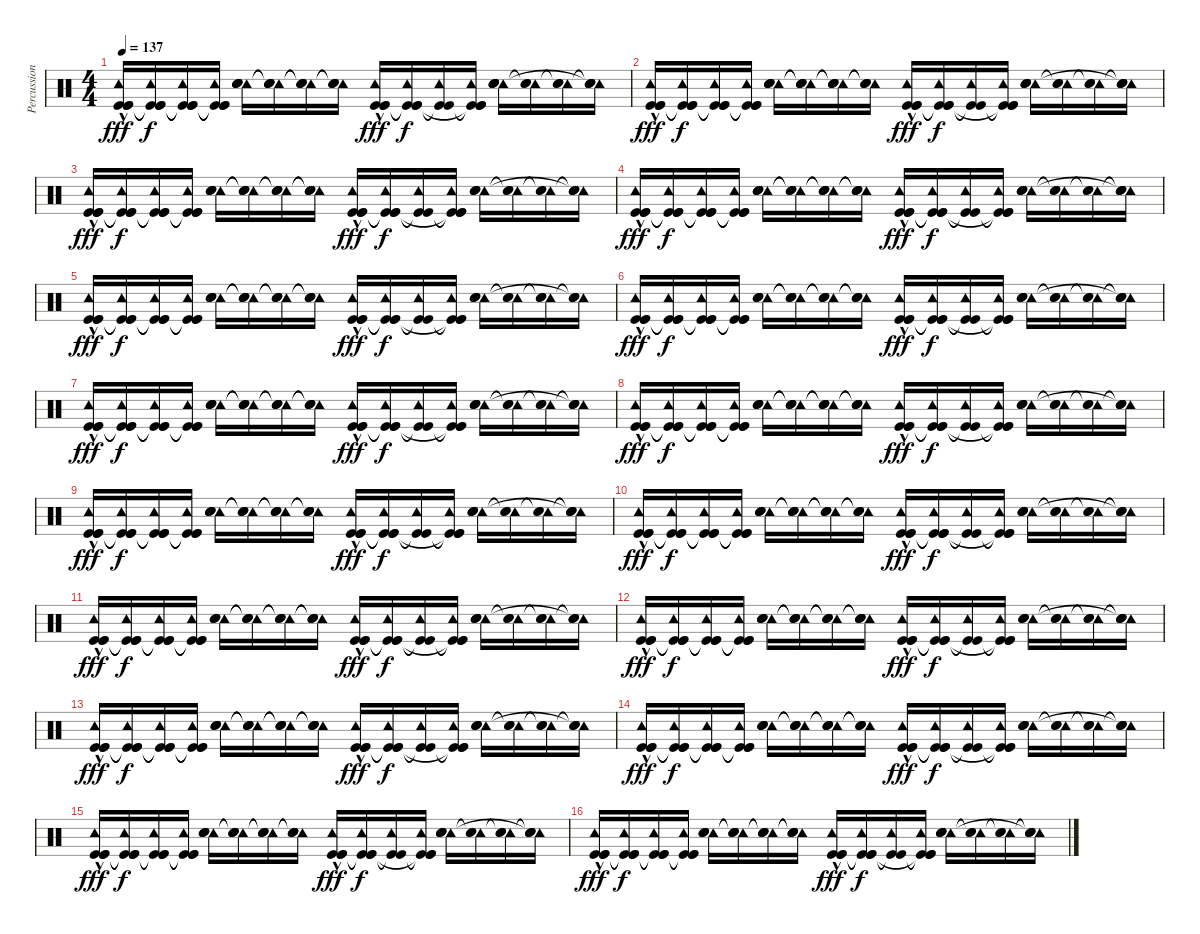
\track ("Percussion" "Percussion") {instrument percussion}
\staff {score}
\articulation defaults
\ts (4 4)
\tempo 137
\clef neutral
\ks c
("Tambourine (hit)"{hac} "Kick (hit)" "Kick (hit)" "Kick (hit)").16{dy fff} ("Tambourine (hit)" "Kick (hit)"{t} "Kick (hit)"{t} "Kick (hit)"{t}).16{dy f} ("Tambourine (hit)" "Kick (hit)"{t} "Kick (hit)"{t} "Kick (hit)"{t}).16 ("Tambourine (hit)" "Kick (hit)"{t} "Kick (hit)"{t} "Kick (hit)"{t}).16 ("Tambourine (hit)" "Snare (hit) 2" "Snare (hit) 2" "Snare (hit) 2").16 ("Tambourine (hit)" "Snare (hit) 2"{t} "Snare (hit) 2"{t} "Snare (hit) 2"{t}).16 ("Tambourine (hit)" "Snare (hit) 2"{t} "Snare (hit) 2"{t} "Snare (hit) 2"{t}).16 ("Tambourine (hit)" "Snare (hit) 2"{t} "Snare (hit) 2"{t} "Snare (hit) 2"{t}).16 ("Tambourine (hit)"{hac} "Kick (hit)" "Kick (hit)" "Kick (hit)").16{dy fff} ("Tambourine (hit)" "Kick (hit)"{t} "Kick (hit)"{t} "Kick (hit)"{t}).16{dy f} ("Tambourine (hit)" "Kick (hit)"{t} "Kick (hit)"{t}).16 ("Tambourine (hit)" "Kick (hit)"{t} "Kick (hit)"{t} "Kick (hit)"{t}).16 ("Tambourine (hit)" "Snare (hit) 2" "Snare (hit) 2" "Snare (hit) 2").16 ("Tambourine (hit)" "Snare (hit) 2"{t} "Snare (hit) 2"{t}).16 ("Tambourine (hit)" "Snare (hit) 2"{t} "Snare (hit) 2"{t}).16 ("Tambourine (hit)" "Snare (hit) 2"{t} "Snare (hit) 2"{t} "Snare (hit) 2"{t}).16 |
("Tambourine (hit)"{hac} "Kick (hit)" "Kick (hit)" "Kick (hit)").16{dy fff} ("Tambourine (hit)" "Kick (hit)"{t} "Kick (hit)"{t} "Kick (hit)"{t}).16{dy f} ("Tambourine (hit)" "Kick (hit)"{t} "Kick (hit)"{t} "Kick (hit)"{t}).16 ("Tambourine (hit)" "Kick (hit)"{t} "Kick (hit)"{t} "Kick (hit)"{t}).16 ("Tambourine (hit)" "Snare (hit) 2" "Snare (hit) 2" "Snare (hit) 2").16 ("Tambourine (hit)" "Snare (hit) 2"{t} "Snare (hit) 2"{t} "Snare (hit) 2"{t}).16 ("Tambourine (hit)" "Snare (hit) 2"{t} "Snare (hit) 2"{t} "Snare (hit) 2"{t}).16 ("Tambourine (hit)" "Snare (hit) 2"{t} "Snare (hit) 2"{t} "Snare (hit) 2"{t}).16 ("Tambourine (hit)"{hac} "Kick (hit)" "Kick (hit)" "Kick (hit)").16{dy fff} ("Tambourine (hit)" "Kick (hit)"{t} "Kick (hit)"{t} "Kick (hit)"{t}).16{dy f} ("Tambourine (hit)" "Kick (hit)"{t} "Kick (hit)"{t}).16 ("Tambourine (hit)" "Kick (hit)"{t} "Kick (hit)"{t} "Kick (hit)"{t}).16 ("Tambourine (hit)" "Snare (hit) 2" "Snare (hit) 2" "Snare (hit) 2").16 ("Tambourine (hit)" "Snare (hit) 2"{t} "Snare (hit) 2"{t}).16 ("Tambourine (hit)" "Snare (hit) 2"{t} "Snare (hit) 2"{t}).16 ("Tambourine (hit)" "Snare (hit) 2"{t} "Snare (hit) 2"{t} "Snare (hit) 2"{t}).16 |
("Tambourine (hit)"{hac} "Kick (hit)" "Kick (hit)" "Kick (hit)").16{dy fff} ("Tambourine (hit)" "Kick (hit)"{t} "Kick (hit)"{t} "Kick (hit)"{t}).16{dy f} ("Tambourine (hit)" "Kick (hit)"{t} "Kick (hit)"{t} "Kick (hit)"{t}).16 ("Tambourine (hit)" "Kick (hit)"{t} "Kick (hit)"{t} "Kick (hit)"{t}).16 ("Tambourine (hit)" "Snare (hit) 2" "Snare (hit) 2" "Snare (hit) 2").16 ("Tambourine (hit)" "Snare (hit) 2"{t} "Snare (hit) 2"{t} "Snare (hit) 2"{t}).16 ("Tambourine (hit)" "Snare (hit) 2"{t} "Snare (hit) 2"{t} "Snare (hit) 2"{t}).16 ("Tambourine (hit)" "Snare (hit) 2"{t} "Snare (hit) 2"{t} "Snare (hit) 2"{t}).16 ("Tambourine (hit)"{hac} "Kick (hit)" "Kick (hit)" "Kick (hit)").16{dy fff} ("Tambourine (hit)" "Kick (hit)"{t} "Kick (hit)"{t} "Kick (hit)"{t}).16{dy f} ("Tambourine (hit)" "Kick (hit)"{t} "Kick (hit)"{t}).16 ("Tambourine (hit)" "Kick (hit)"{t} "Kick (hit)"{t} "Kick (hit)"{t}).16 ("Tambourine (hit)" "Snare (hit) 2" "Snare (hit) 2" "Snare (hit) 2").16 ("Tambourine (hit)" "Snare (hit) 2"{t} "Snare (hit) 2"{t}).16 ("Tambourine (hit)" "Snare (hit) 2"{t} "Snare (hit) 2"{t}).16 ("Tambourine (hit)" "Snare (hit) 2"{t} "Snare (hit) 2"{t} "Snare (hit) 2"{t}).16 |
("Tambourine (hit)"{hac} "Kick (hit)" "Kick (hit)" "Kick (hit)").16{dy fff} ("Tambourine (hit)" "Kick (hit)"{t} "Kick (hit)"{t} "Kick (hit)"{t}).16{dy f} ("Tambourine (hit)" "Kick (hit)"{t} "Kick (hit)"{t} "Kick (hit)"{t}).16 ("Tambourine (hit)" "Kick (hit)"{t} "Kick (hit)"{t} "Kick (hit)"{t}).16 ("Tambourine (hit)" "Snare (hit) 2" "Snare (hit) 2" "Snare (hit) 2").16 ("Tambourine (hit)" "Snare (hit) 2"{t} "Snare (hit) 2"{t} "Snare (hit) 2"{t}).16 ("Tambourine (hit)" "Snare (hit) 2"{t} "Snare (hit) 2"{t} "Snare (hit) 2"{t}).16 ("Tambourine (hit)" "Snare (hit) 2"{t} "Snare (hit) 2"{t} "Snare (hit) 2"{t}).16 ("Tambourine (hit)"{hac} "Kick (hit)" "Kick (hit)" "Kick (hit)").16{dy fff} ("Tambourine (hit)" "Kick (hit)"{t} "Kick (hit)"{t} "Kick (hit)"{t}).16{dy f} ("Tambourine (hit)" "Kick (hit)"{t} "Kick (hit)"{t}).16 ("Tambourine (hit)" "Kick (hit)"{t} "Kick (hit)"{t} "Kick (hit)"{t}).16 ("Tambourine (hit)" "Snare (hit) 2" "Snare (hit) 2" "Snare (hit) 2").16 ("Tambourine (hit)" "Snare (hit) 2"{t} "Snare (hit) 2"{t}).16 ("Tambourine (hit)" "Snare (hit) 2"{t} "Snare (hit) 2"{t}).16 ("Tambourine (hit)" "Snare (hit) 2"{t} "Snare (hit) 2"{t} "Snare (hit) 2"{t}).16 |
("Tambourine (hit)"{hac} "Kick (hit)" "Kick (hit)" "Kick (hit)").16{dy fff} ("Tambourine (hit)" "Kick (hit)"{t} "Kick (hit)"{t} "Kick (hit)"{t}).16{dy f} ("Tambourine (hit)" "Kick (hit)"{t} "Kick (hit)"{t} "Kick (hit)"{t}).16 ("Tambourine (hit)" "Kick (hit)"{t} "Kick (hit)"{t} "Kick (hit)"{t}).16 ("Tambourine (hit)" "Snare (hit) 2" "Snare (hit) 2" "Snare (hit) 2").16 ("Tambourine (hit)" "Snare (hit) 2"{t} "Snare (hit) 2"{t} "Snare (hit) 2"{t}).16 ("Tambourine (hit)" "Snare (hit) 2"{t} "Snare (hit) 2"{t} "Snare (hit) 2"{t}).16 ("Tambourine (hit)" "Snare (hit) 2"{t} "Snare (hit) 2"{t} "Snare (hit) 2"{t}).16 ("Tambourine (hit)"{hac} "Kick (hit)" "Kick (hit)" "Kick (hit)").16{dy fff} ("Tambourine (hit)" "Kick (hit)"{t} "Kick (hit)"{t} "Kick (hit)"{t}).16{dy f} ("Tambourine (hit)" "Kick (hit)"{t} "Kick (hit)"{t}).16 ("Tambourine (hit)" "Kick (hit)"{t} "Kick (hit)"{t} "Kick (hit)"{t}).16 ("Tambourine (hit)" "Snare (hit) 2" "Snare (hit) 2" "Snare (hit) 2").16 ("Tambourine (hit)" "Snare (hit) 2"{t} "Snare (hit) 2"{t}).16 ("Tambourine (hit)" "Snare (hit) 2"{t} "Snare (hit) 2"{t}).16 ("Tambourine (hit)" "Snare (hit) 2"{t} "Snare (hit) 2"{t} "Snare (hit) 2"{t}).16 |
("Tambourine (hit)"{hac} "Kick (hit)" "Kick (hit)" "Kick (hit)").16{dy fff} ("Tambourine (hit)" "Kick (hit)"{t} "Kick (hit)"{t} "Kick (hit)"{t}).16{dy f} ("Tambourine (hit)" "Kick (hit)"{t} "Kick (hit)"{t} "Kick (hit)"{t}).16 ("Tambourine (hit)" "Kick (hit)"{t} "Kick (hit)"{t} "Kick (hit)"{t}).16 ("Tambourine (hit)" "Snare (hit) 2" "Snare (hit) 2" "Snare (hit) 2").16 ("Tambourine (hit)" "Snare (hit) 2"{t} "Snare (hit) 2"{t} "Snare (hit) 2"{t}).16 ("Tambourine (hit)" "Snare (hit) 2"{t} "Snare (hit) 2"{t} "Snare (hit) 2"{t}).16 ("Tambourine (hit)" "Snare (hit) 2"{t} "Snare (hit) 2"{t} "Snare (hit) 2"{t}).16 ("Tambourine (hit)"{hac} "Kick (hit)" "Kick (hit)" "Kick (hit)").16{dy fff} ("Tambourine (hit)" "Kick (hit)"{t} "Kick (hit)"{t} "Kick (hit)"{t}).16{dy f} ("Tambourine (hit)" "Kick (hit)"{t} "Kick (hit)"{t}).16 ("Tambourine (hit)" "Kick (hit)"{t} "Kick (hit)"{t} "Kick (hit)"{t}).16 ("Tambourine (hit)" "Snare (hit) 2" "Snare (hit) 2" "Snare (hit) 2").16 ("Tambourine (hit)" "Snare (hit) 2"{t} "Snare (hit) 2"{t}).16 ("Tambourine (hit)" "Snare (hit) 2"{t} "Snare (hit) 2"{t}).16 ("Tambourine (hit)" "Snare (hit) 2"{t} "Snare (hit) 2"{t} "Snare (hit) 2"{t}).16 |
("Tambourine (hit)"{hac} "Kick (hit)" "Kick (hit)" "Kick (hit)").16{dy fff} ("Tambourine (hit)" "Kick (hit)"{t} "Kick (hit)"{t} "Kick (hit)"{t}).16{dy f} ("Tambourine (hit)" "Kick (hit)"{t} "Kick (hit)"{t} "Kick (hit)"{t}).16 ("Tambourine (hit)" "Kick (hit)"{t} "Kick (hit)"{t} "Kick (hit)"{t}).16 ("Tambourine (hit)" "Snare (hit) 2" "Snare (hit) 2" "Snare (hit) 2").16 ("Tambourine (hit)" "Snare (hit) 2"{t} "Snare (hit) 2"{t} "Snare (hit) 2"{t}).16 ("Tambourine (hit)" "Snare (hit) 2"{t} "Snare (hit) 2"{t} "Snare (hit) 2"{t}).16 ("Tambourine (hit)" "Snare (hit) 2"{t} "Snare (hit) 2"{t} "Snare (hit) 2"{t}).16 ("Tambourine (hit)"{hac} "Kick (hit)" "Kick (hit)" "Kick (hit)").16{dy fff} ("Tambourine (hit)" "Kick (hit)"{t} "Kick (hit)"{t} "Kick (hit)"{t}).16{dy f} ("Tambourine (hit)" "Kick (hit)"{t} "Kick (hit)"{t}).16 ("Tambourine (hit)" "Kick (hit)"{t} "Kick (hit)"{t} "Kick (hit)"{t}).16 ("Tambourine (hit)" "Snare (hit) 2" "Snare (hit) 2" "Snare (hit) 2").16 ("Tambourine (hit)" "Snare (hit) 2"{t} "Snare (hit) 2"{t}).16 ("Tambourine (hit)" "Snare (hit) 2"{t} "Snare (hit) 2"{t}).16 ("Tambourine (hit)" "Snare (hit) 2"{t} "Snare (hit) 2"{t} "Snare (hit) 2"{t}).16 |
("Tambourine (hit)"{hac} "Kick (hit)" "Kick (hit)" "Kick (hit)").16{dy fff} ("Tambourine (hit)" "Kick (hit)"{t} "Kick (hit)"{t} "Kick (hit)"{t}).16{dy f} ("Tambourine (hit)" "Kick (hit)"{t} "Kick (hit)"{t} "Kick (hit)"{t}).16 ("Tambourine (hit)" "Kick (hit)"{t} "Kick (hit)"{t} "Kick (hit)"{t}).16 ("Tambourine (hit)" "Snare (hit) 2" "Snare (hit) 2" "Snare (hit) 2").16 ("Tambourine (hit)" "Snare (hit) 2"{t} "Snare (hit) 2"{t} "Snare (hit) 2"{t}).16 ("Tambourine (hit)" "Snare (hit) 2"{t} "Snare (hit) 2"{t} "Snare (hit) 2"{t}).16 ("Tambourine (hit)" "Snare (hit) 2"{t} "Snare (hit) 2"{t} "Snare (hit) 2"{t}).16 ("Tambourine (hit)"{hac} "Kick (hit)" "Kick (hit)" "Kick (hit)").16{dy fff} ("Tambourine (hit)" "Kick (hit)"{t} "Kick (hit)"{t} "Kick (hit)"{t}).16{dy f} ("Tambourine (hit)" "Kick (hit)"{t} "Kick (hit)"{t}).16 ("Tambourine (hit)" "Kick (hit)"{t} "Kick (hit)"{t} "Kick (hit)"{t}).16 ("Tambourine (hit)" "Snare (hit) 2" "Snare (hit) 2" "Snare (hit) 2").16 ("Tambourine (hit)" "Snare (hit) 2"{t} "Snare (hit) 2"{t}).16 ("Tambourine (hit)" "Snare (hit) 2"{t} "Snare (hit) 2"{t}).16 ("Tambourine (hit)" "Snare (hit) 2"{t} "Snare (hit) 2"{t} "Snare (hit) 2"{t}).16 |
("Tambourine (hit)"{hac} "Kick (hit)" "Kick (hit)" "Kick (hit)").16{dy fff} ("Tambourine (hit)" "Kick (hit)"{t} "Kick (hit)"{t} "Kick (hit)"{t}).16{dy f} ("Tambourine (hit)" "Kick (hit)"{t} "Kick (hit)"{t} "Kick (hit)"{t}).16 ("Tambourine (hit)" "Kick (hit)"{t} "Kick (hit)"{t} "Kick (hit)"{t}).16 ("Tambourine (hit)" "Snare (hit) 2" "Snare (hit) 2" "Snare (hit) 2").16 ("Tambourine (hit)" "Snare (hit) 2"{t} "Snare (hit) 2"{t} "Snare (hit) 2"{t}).16 ("Tambourine (hit)" "Snare (hit) 2"{t} "Snare (hit) 2"{t} "Snare (hit) 2"{t}).16 ("Tambourine (hit)" "Snare (hit) 2"{t} "Snare (hit) 2"{t} "Snare (hit) 2"{t}).16 ("Tambourine (hit)"{hac} "Kick (hit)" "Kick (hit)" "Kick (hit)").16{dy fff} ("Tambourine (hit)" "Kick (hit)"{t} "Kick (hit)"{t} "Kick (hit)"{t}).16{dy f} ("Tambourine (hit)" "Kick (hit)"{t} "Kick (hit)"{t}).16 ("Tambourine (hit)" "Kick (hit)"{t} "Kick (hit)"{t} "Kick (hit)"{t}).16 ("Tambourine (hit)" "Snare (hit) 2" "Snare (hit) 2" "Snare (hit) 2").16 ("Tambourine (hit)" "Snare (hit) 2"{t} "Snare (hit) 2"{t}).16 ("Tambourine (hit)" "Snare (hit) 2"{t} "Snare (hit) 2"{t}).16 ("Tambourine (hit)" "Snare (hit) 2"{t} "Snare (hit) 2"{t} "Snare (hit) 2"{t}).16 |
("Tambourine (hit)"{hac} "Kick (hit)" "Kick (hit)" "Kick (hit)").16{dy fff} ("Tambourine (hit)" "Kick (hit)"{t} "Kick (hit)"{t} "Kick (hit)"{t}).16{dy f} ("Tambourine (hit)" "Kick (hit)"{t} "Kick (hit)"{t} "Kick (hit)"{t}).16 ("Tambourine (hit)" "Kick (hit)"{t} "Kick (hit)"{t} "Kick (hit)"{t}).16 ("Tambourine (hit)" "Snare (hit) 2" "Snare (hit) 2" "Snare (hit) 2").16 ("Tambourine (hit)" "Snare (hit) 2"{t} "Snare (hit) 2"{t} "Snare (hit) 2"{t}).16 ("Tambourine (hit)" "Snare (hit) 2"{t} "Snare (hit) 2"{t} "Snare (hit) 2"{t}).16 ("Tambourine (hit)" "Snare (hit) 2"{t} "Snare (hit) 2"{t} "Snare (hit) 2"{t}).16 ("Tambourine (hit)"{hac} "Kick (hit)" "Kick (hit)" "Kick (hit)").16{dy fff} ("Tambourine (hit)" "Kick (hit)"{t} "Kick (hit)"{t} "Kick (hit)"{t}).16{dy f} ("Tambourine (hit)" "Kick (hit)"{t} "Kick (hit)"{t}).16 ("Tambourine (hit)" "Kick (hit)"{t} "Kick (hit)"{t} "Kick (hit)"{t}).16 ("Tambourine (hit)" "Snare (hit) 2" "Snare (hit) 2" "Snare (hit) 2").16 ("Tambourine (hit)" "Snare (hit) 2"{t} "Snare (hit) 2"{t}).16 ("Tambourine (hit)" "Snare (hit) 2"{t} "Snare (hit) 2"{t}).16 ("Tambourine (hit)" "Snare (hit) 2"{t} "Snare (hit) 2"{t} "Snare (hit) 2"{t}).16 |
("Tambourine (hit)"{hac} "Kick (hit)" "Kick (hit)" "Kick (hit)").16{dy fff} ("Tambourine (hit)" "Kick (hit)"{t} "Kick (hit)"{t} "Kick (hit)"{t}).16{dy f} ("Tambourine (hit)" "Kick (hit)"{t} "Kick (hit)"{t} "Kick (hit)"{t}).16 ("Tambourine (hit)" "Kick (hit)"{t} "Kick (hit)"{t} "Kick (hit)"{t}).16 ("Tambourine (hit)" "Snare (hit) 2" "Snare (hit) 2" "Snare (hit) 2").16 ("Tambourine (hit)" "Snare (hit) 2"{t} "Snare (hit) 2"{t} "Snare (hit) 2"{t}).16 ("Tambourine (hit)" "Snare (hit) 2"{t} "Snare (hit) 2"{t} "Snare (hit) 2"{t}).16 ("Tambourine (hit)" "Snare (hit) 2"{t} "Snare (hit) 2"{t} "Snare (hit) 2"{t}).16 ("Tambourine (hit)"{hac} "Kick (hit)" "Kick (hit)" "Kick (hit)").16{dy fff} ("Tambourine (hit)" "Kick (hit)"{t} "Kick (hit)"{t} "Kick (hit)"{t}).16{dy f} ("Tambourine (hit)" "Kick (hit)"{t} "Kick (hit)"{t}).16 ("Tambourine (hit)" "Kick (hit)"{t} "Kick (hit)"{t} "Kick (hit)"{t}).16 ("Tambourine (hit)" "Snare (hit) 2" "Snare (hit) 2" "Snare (hit) 2").16 ("Tambourine (hit)" "Snare (hit) 2"{t} "Snare (hit) 2"{t}).16 ("Tambourine (hit)" "Snare (hit) 2"{t} "Snare (hit) 2"{t}).16 ("Tambourine (hit)" "Snare (hit) 2"{t} "Snare (hit) 2"{t} "Snare (hit) 2"{t}).16 |
("Tambourine (hit)"{hac} "Kick (hit)" "Kick (hit)" "Kick (hit)").16{dy fff} ("Tambourine (hit)" "Kick (hit)"{t} "Kick (hit)"{t} "Kick (hit)"{t}).16{dy f} ("Tambourine (hit)" "Kick (hit)"{t} "Kick (hit)"{t} "Kick (hit)"{t}).16 ("Tambourine (hit)" "Kick (hit)"{t} "Kick (hit)"{t} "Kick (hit)"{t}).16 ("Tambourine (hit)" "Snare (hit) 2" "Snare (hit) 2" "Snare (hit) 2").16 ("Tambourine (hit)" "Snare (hit) 2"{t} "Snare (hit) 2"{t} "Snare (hit) 2"{t}).16 ("Tambourine (hit)" "Snare (hit) 2"{t} "Snare (hit) 2"{t} "Snare (hit) 2"{t}).16 ("Tambourine (hit)" "Snare (hit) 2"{t} "Snare (hit) 2"{t} "Snare (hit) 2"{t}).16 ("Tambourine (hit)"{hac} "Kick (hit)" "Kick (hit)" "Kick (hit)").16{dy fff} ("Tambourine (hit)" "Kick (hit)"{t} "Kick (hit)"{t} "Kick (hit)"{t}).16{dy f} ("Tambourine (hit)" "Kick (hit)"{t} "Kick (hit)"{t}).16 ("Tambourine (hit)" "Kick (hit)"{t} "Kick (hit)"{t} "Kick (hit)"{t}).16 ("Tambourine (hit)" "Snare (hit) 2" "Snare (hit) 2" "Snare (hit) 2").16 ("Tambourine (hit)" "Snare (hit) 2"{t} "Snare (hit) 2"{t}).16 ("Tambourine (hit)" "Snare (hit) 2"{t} "Snare (hit) 2"{t}).16 ("Tambourine (hit)" "Snare (hit) 2"{t} "Snare (hit) 2"{t} "Snare (hit) 2"{t}).16 |
("Tambourine (hit)"{hac} "Kick (hit)" "Kick (hit)" "Kick (hit)").16{dy fff} ("Tambourine (hit)" "Kick (hit)"{t} "Kick (hit)"{t} "Kick (hit)"{t}).16{dy f} ("Tambourine (hit)" "Kick (hit)"{t} "Kick (hit)"{t} "Kick (hit)"{t}).16 ("Tambourine (hit)" "Kick (hit)"{t} "Kick (hit)"{t} "Kick (hit)"{t}).16 ("Tambourine (hit)" "Snare (hit) 2" "Snare (hit) 2" "Snare (hit) 2").16 ("Tambourine (hit)" "Snare (hit) 2"{t} "Snare (hit) 2"{t} "Snare (hit) 2"{t}).16 ("Tambourine (hit)" "Snare (hit) 2"{t} "Snare (hit) 2"{t} "Snare (hit) 2"{t}).16 ("Tambourine (hit)" "Snare (hit) 2"{t} "Snare (hit) 2"{t} "Snare (hit) 2"{t}).16 ("Tambourine (hit)"{hac} "Kick (hit)" "Kick (hit)" "Kick (hit)").16{dy fff} ("Tambourine (hit)" "Kick (hit)"{t} "Kick (hit)"{t} "Kick (hit)"{t}).16{dy f} ("Tambourine (hit)" "Kick (hit)"{t} "Kick (hit)"{t}).16 ("Tambourine (hit)" "Kick (hit)"{t} "Kick (hit)"{t} "Kick (hit)"{t}).16 ("Tambourine (hit)" "Snare (hit) 2" "Snare (hit) 2" "Snare (hit) 2").16 ("Tambourine (hit)" "Snare (hit) 2"{t} "Snare (hit) 2"{t}).16 ("Tambourine (hit)" "Snare (hit) 2"{t} "Snare (hit) 2"{t}).16 ("Tambourine (hit)" "Snare (hit) 2"{t} "Snare (hit) 2"{t} "Snare (hit) 2"{t}).16 |
("Tambourine (hit)"{hac} "Kick (hit)" "Kick (hit)" "Kick (hit)").16{dy fff} ("Tambourine (hit)" "Kick (hit)"{t} "Kick (hit)"{t} "Kick (hit)"{t}).16{dy f} ("Tambourine (hit)" "Kick (hit)"{t} "Kick (hit)"{t} "Kick (hit)"{t}).16 ("Tambourine (hit)" "Kick (hit)"{t} "Kick (hit)"{t} "Kick (hit)"{t}).16 ("Tambourine (hit)" "Snare (hit) 2" "Snare (hit) 2" "Snare (hit) 2").16 ("Tambourine (hit)" "Snare (hit) 2"{t} "Snare (hit) 2"{t} "Snare (hit) 2"{t}).16 ("Tambourine (hit)" "Snare (hit) 2"{t} "Snare (hit) 2"{t} "Snare (hit) 2"{t}).16 ("Tambourine (hit)" "Snare (hit) 2"{t} "Snare (hit) 2"{t} "Snare (hit) 2"{t}).16 ("Tambourine (hit)"{hac} "Kick (hit)" "Kick (hit)" "Kick (hit)").16{dy fff} ("Tambourine (hit)" "Kick (hit)"{t} "Kick (hit)"{t} "Kick (hit)"{t}).16{dy f} ("Tambourine (hit)" "Kick (hit)"{t} "Kick (hit)"{t}).16 ("Tambourine (hit)" "Kick (hit)"{t} "Kick (hit)"{t} "Kick (hit)"{t}).16 ("Tambourine (hit)" "Snare (hit) 2" "Snare (hit) 2" "Snare (hit) 2").16 ("Tambourine (hit)" "Snare (hit) 2"{t} "Snare (hit) 2"{t}).16 ("Tambourine (hit)" "Snare (hit) 2"{t} "Snare (hit) 2"{t}).16 ("Tambourine (hit)" "Snare (hit) 2"{t} "Snare (hit) 2"{t} "Snare (hit) 2"{t}).16 |
("Tambourine (hit)"{hac} "Kick (hit)" "Kick (hit)" "Kick (hit)").16{dy fff} ("Tambourine (hit)" "Kick (hit)"{t} "Kick (hit)"{t} "Kick (hit)"{t}).16{dy f} ("Tambourine (hit)" "Kick (hit)"{t} "Kick (hit)"{t} "Kick (hit)"{t}).16 ("Tambourine (hit)" "Kick (hit)"{t} "Kick (hit)"{t} "Kick (hit)"{t}).16 ("Tambourine (hit)" "Snare (hit) 2" "Snare (hit) 2" "Snare (hit) 2").16 ("Tambourine (hit)" "Snare (hit) 2"{t} "Snare (hit) 2"{t} "Snare (hit) 2"{t}).16 ("Tambourine (hit)" "Snare (hit) 2"{t} "Snare (hit) 2"{t} "Snare (hit) 2"{t}).16 ("Tambourine (hit)" "Snare (hit) 2"{t} "Snare (hit) 2"{t} "Snare (hit) 2"{t}).16 ("Tambourine (hit)"{hac} "Kick (hit)" "Kick (hit)" "Kick (hit)").16{dy fff} ("Tambourine (hit)" "Kick (hit)"{t} "Kick (hit)"{t} "Kick (hit)"{t}).16{dy f} ("Tambourine (hit)" "Kick (hit)"{t} "Kick (hit)"{t}).16 ("Tambourine (hit)" "Kick (hit)"{t} "Kick (hit)"{t} "Kick (hit)"{t}).16 ("Tambourine (hit)" "Snare (hit) 2" "Snare (hit) 2" "Snare (hit) 2").16 ("Tambourine (hit)" "Snare (hit) 2"{t} "Snare (hit) 2"{t}).16 ("Tambourine (hit)" "Snare (hit) 2"{t} "Snare (hit) 2"{t}).16 ("Tambourine (hit)" "Snare (hit) 2"{t} "Snare (hit) 2"{t} "Snare (hit) 2"{t}).16 |
("Tambourine (hit)"{hac} "Kick (hit)" "Kick (hit)" "Kick (hit)").16{dy fff} ("Tambourine (hit)" "Kick (hit)"{t} "Kick (hit)"{t} "Kick (hit)"{t}).16{dy f} ("Tambourine (hit)" "Kick (hit)"{t} "Kick (hit)"{t} "Kick (hit)"{t}).16 ("Tambourine (hit)" "Kick (hit)"{t} "Kick (hit)"{t} "Kick (hit)"{t}).16 ("Tambourine (hit)" "Snare (hit) 2" "Snare (hit) 2" "Snare (hit) 2").16 ("Tambourine (hit)" "Snare (hit) 2"{t} "Snare (hit) 2"{t} "Snare (hit) 2"{t}).16 ("Tambourine (hit)" "Snare (hit) 2"{t} "Snare (hit) 2"{t} "Snare (hit) 2"{t}).16 ("Tambourine (hit)" "Snare (hit) 2"{t} "Snare (hit) 2"{t} "Snare (hit) 2"{t}).16 ("Tambourine (hit)"{hac} "Kick (hit)" "Kick (hit)" "Kick (hit)").16{dy fff} ("Tambourine (hit)" "Kick (hit)"{t} "Kick (hit)"{t} "Kick (hit)"{t}).16{dy f} ("Tambourine (hit)" "Kick (hit)"{t} "Kick (hit)"{t}).16 ("Tambourine (hit)" "Kick (hit)"{t} "Kick (hit)"{t} "Kick (hit)"{t}).16 ("Tambourine (hit)" "Snare (hit) 2" "Snare (hit) 2" "Snare (hit) 2").16 ("Tambourine (hit)" "Snare (hit) 2"{t} "Snare (hit) 2"{t}).16 ("Tambourine (hit)" "Snare (hit) 2"{t} "Snare (hit) 2"{t}).16 ("Tambourine (hit)" "Snare (hit) 2"{t} "Snare (hit) 2"{t} "Snare (hit) 2"{t}).16
